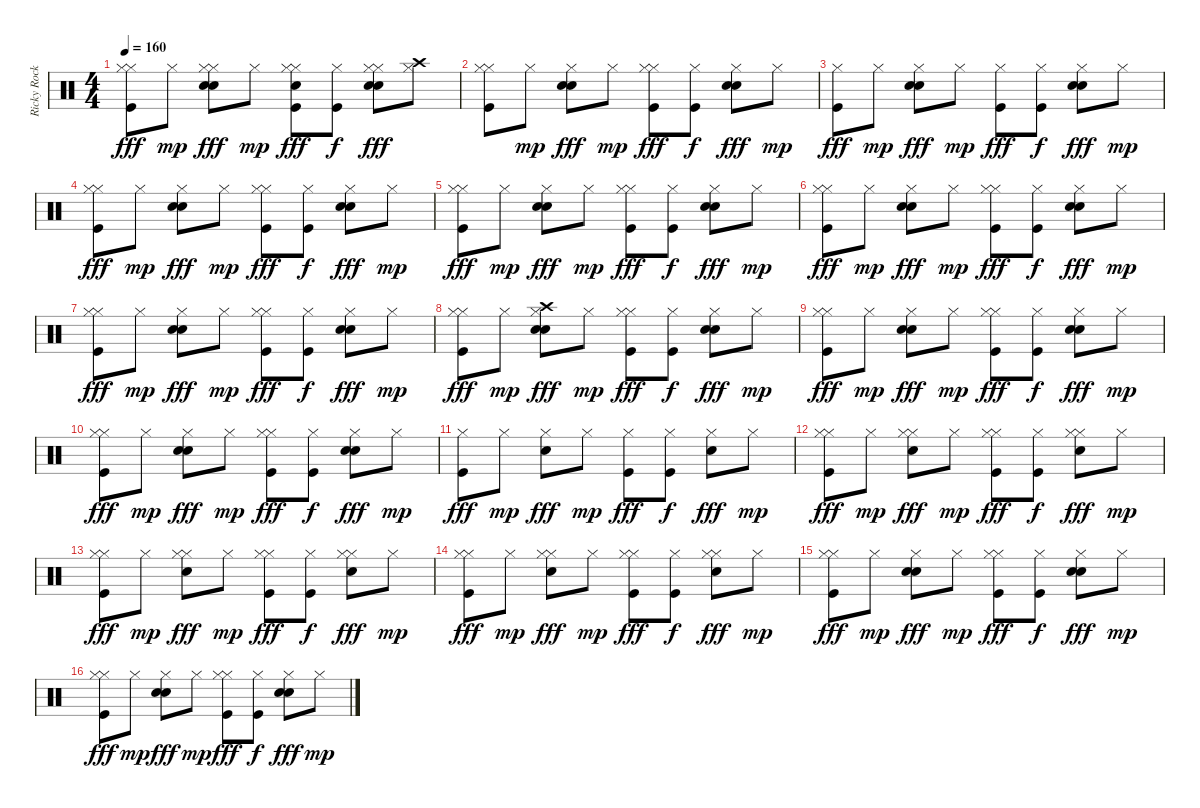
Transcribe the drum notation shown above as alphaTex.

\track ("Ricky Rockett" "Ricky Rock") {instrument percussion}
\staff {score}
\articulation defaults
\ts (4 4)
\tempo 160
\clef neutral
\ks c
("Hi-Hat (closed)" "Kick (hit)" "Hi-Hat (closed)").8{dy fff} "Hi-Hat (closed)".8{dy mp} ("Snare (hit) 2" "Hi-Hat (closed)" "Hi-Hat (closed)" "Electric Snare (hit)").8{dy fff} "Hi-Hat (closed)".8{dy mp} ("Hi-Hat (closed)" "Kick (hit)" "Hi-Hat (closed)" "Electric Snare (hit)").8{dy fff} ("Hi-Hat (closed)" "Kick (hit)").8{dy f} ("Snare (hit) 2" "Hi-Hat (closed)" "Hi-Hat (closed)" "Electric Snare (hit)").8{dy fff} ("Hi-Hat (closed)" "Crash high (hit)").8 |
("Hi-Hat (closed)" "Kick (hit)" "Hi-Hat (closed)").8 "Hi-Hat (closed)".8{dy mp} ("Snare (hit) 2" "Hi-Hat (closed)" "Electric Snare (hit)").8{dy fff} "Hi-Hat (closed)".8{dy mp} ("Hi-Hat (closed)" "Kick (hit)" "Hi-Hat (closed)").8{dy fff} ("Hi-Hat (closed)" "Kick (hit)").8{dy f} ("Snare (hit) 2" "Hi-Hat (closed)" "Electric Snare (hit)").8{dy fff} "Hi-Hat (closed)".8{dy mp} |
("Hi-Hat (closed)" "Kick (hit)").8{dy fff} "Hi-Hat (closed)".8{dy mp} ("Snare (hit) 2" "Hi-Hat (closed)" "Electric Snare (hit)").8{dy fff} "Hi-Hat (closed)".8{dy mp} ("Hi-Hat (closed)" "Kick (hit)").8{dy fff} ("Hi-Hat (closed)" "Kick (hit)").8{dy f} ("Snare (hit) 2" "Hi-Hat (closed)" "Electric Snare (hit)").8{dy fff} "Hi-Hat (closed)".8{dy mp} |
("Hi-Hat (closed)" "Kick (hit)" "Hi-Hat (closed)").8{dy fff} "Hi-Hat (closed)".8{dy mp} ("Snare (hit) 2" "Hi-Hat (closed)" "Electric Snare (hit)").8{dy fff} "Hi-Hat (closed)".8{dy mp} ("Hi-Hat (closed)" "Kick (hit)" "Hi-Hat (closed)").8{dy fff} ("Hi-Hat (closed)" "Kick (hit)").8{dy f} ("Snare (hit) 2" "Hi-Hat (closed)" "Electric Snare (hit)").8{dy fff} "Hi-Hat (closed)".8{dy mp} |
("Hi-Hat (closed)" "Kick (hit)" "Hi-Hat (closed)").8{dy fff} "Hi-Hat (closed)".8{dy mp} ("Snare (hit) 2" "Hi-Hat (closed)" "Electric Snare (hit)").8{dy fff} "Hi-Hat (closed)".8{dy mp} ("Hi-Hat (closed)" "Kick (hit)" "Hi-Hat (closed)").8{dy fff} ("Hi-Hat (closed)" "Kick (hit)").8{dy f} ("Snare (hit) 2" "Hi-Hat (closed)" "Electric Snare (hit)").8{dy fff} "Hi-Hat (closed)".8{dy mp} |
("Hi-Hat (closed)" "Kick (hit)" "Hi-Hat (closed)").8{dy fff} "Hi-Hat (closed)".8{dy mp} ("Snare (hit) 2" "Hi-Hat (closed)" "Electric Snare (hit)").8{dy fff} "Hi-Hat (closed)".8{dy mp} ("Hi-Hat (closed)" "Kick (hit)" "Hi-Hat (closed)").8{dy fff} ("Hi-Hat (closed)" "Kick (hit)").8{dy f} ("Snare (hit) 2" "Hi-Hat (closed)" "Electric Snare (hit)").8{dy fff} "Hi-Hat (closed)".8{dy mp} |
("Hi-Hat (closed)" "Kick (hit)" "Hi-Hat (closed)").8{dy fff} "Hi-Hat (closed)".8{dy mp} ("Snare (hit) 2" "Hi-Hat (closed)" "Electric Snare (hit)").8{dy fff} "Hi-Hat (closed)".8{dy mp} ("Hi-Hat (closed)" "Kick (hit)" "Hi-Hat (closed)").8{dy fff} ("Hi-Hat (closed)" "Kick (hit)").8{dy f} ("Snare (hit) 2" "Hi-Hat (closed)" "Electric Snare (hit)").8{dy fff} "Hi-Hat (closed)".8{dy mp} |
("Hi-Hat (closed)" "Kick (hit)" "Hi-Hat (closed)").8{dy fff} "Hi-Hat (closed)".8{dy mp} ("Snare (hit) 2" "Hi-Hat (closed)" "Electric Snare (hit)" "Crash high (hit)").8{dy fff} "Hi-Hat (closed)".8{dy mp} ("Hi-Hat (closed)" "Kick (hit)" "Hi-Hat (closed)").8{dy fff} ("Hi-Hat (closed)" "Kick (hit)").8{dy f} ("Snare (hit) 2" "Hi-Hat (closed)" "Electric Snare (hit)").8{dy fff} "Hi-Hat (closed)".8{dy mp} |
("Hi-Hat (closed)" "Kick (hit)" "Hi-Hat (closed)").8{dy fff} "Hi-Hat (closed)".8{dy mp} ("Snare (hit) 2" "Hi-Hat (closed)" "Electric Snare (hit)").8{dy fff} "Hi-Hat (closed)".8{dy mp} ("Hi-Hat (closed)" "Kick (hit)" "Hi-Hat (closed)").8{dy fff} ("Hi-Hat (closed)" "Kick (hit)").8{dy f} ("Snare (hit) 2" "Hi-Hat (closed)" "Electric Snare (hit)").8{dy fff} "Hi-Hat (closed)".8{dy mp} |
("Hi-Hat (closed)" "Kick (hit)" "Hi-Hat (closed)").8{dy fff} "Hi-Hat (closed)".8{dy mp} ("Snare (hit) 2" "Hi-Hat (closed)" "Electric Snare (hit)").8{dy fff} "Hi-Hat (closed)".8{dy mp} ("Hi-Hat (closed)" "Kick (hit)" "Hi-Hat (closed)").8{dy fff} ("Hi-Hat (closed)" "Kick (hit)").8{dy f} ("Snare (hit) 2" "Hi-Hat (closed)" "Electric Snare (hit)").8{dy fff} "Hi-Hat (closed)".8{dy mp} |
("Hi-Hat (closed)" "Kick (hit)").8{dy fff} "Hi-Hat (closed)".8{dy mp} ("Snare (hit) 2" "Hi-Hat (closed)").8{dy fff} "Hi-Hat (closed)".8{dy mp} ("Hi-Hat (closed)" "Kick (hit)").8{dy fff} ("Hi-Hat (closed)" "Kick (hit)").8{dy f} ("Snare (hit) 2" "Hi-Hat (closed)").8{dy fff} "Hi-Hat (closed)".8{dy mp} |
("Hi-Hat (closed)" "Kick (hit)" "Hi-Hat (closed)").8{dy fff} "Hi-Hat (closed)".8{dy mp} ("Snare (hit) 2" "Hi-Hat (closed)" "Hi-Hat (closed)").8{dy fff} "Hi-Hat (closed)".8{dy mp} ("Hi-Hat (closed)" "Kick (hit)" "Hi-Hat (closed)").8{dy fff} ("Hi-Hat (closed)" "Kick (hit)").8{dy f} ("Snare (hit) 2" "Hi-Hat (closed)" "Hi-Hat (closed)").8{dy fff} "Hi-Hat (closed)".8{dy mp} |
("Hi-Hat (closed)" "Kick (hit)" "Hi-Hat (closed)").8{dy fff} "Hi-Hat (closed)".8{dy mp} ("Snare (hit) 2" "Hi-Hat (closed)" "Hi-Hat (closed)").8{dy fff} "Hi-Hat (closed)".8{dy mp} ("Hi-Hat (closed)" "Kick (hit)" "Hi-Hat (closed)").8{dy fff} ("Hi-Hat (closed)" "Kick (hit)").8{dy f} ("Snare (hit) 2" "Hi-Hat (closed)" "Hi-Hat (closed)").8{dy fff} "Hi-Hat (closed)".8{dy mp} |
("Hi-Hat (closed)" "Kick (hit)" "Hi-Hat (closed)").8{dy fff} "Hi-Hat (closed)".8{dy mp} ("Snare (hit) 2" "Hi-Hat (closed)" "Hi-Hat (closed)").8{dy fff} "Hi-Hat (closed)".8{dy mp} ("Hi-Hat (closed)" "Kick (hit)" "Hi-Hat (closed)").8{dy fff} ("Hi-Hat (closed)" "Kick (hit)").8{dy f} ("Snare (hit) 2" "Hi-Hat (closed)" "Hi-Hat (closed)").8{dy fff} "Hi-Hat (closed)".8{dy mp} |
("Hi-Hat (closed)" "Kick (hit)" "Hi-Hat (closed)").8{dy fff} "Hi-Hat (closed)".8{dy mp} ("Snare (hit) 2" "Hi-Hat (closed)" "Electric Snare (hit)").8{dy fff} "Hi-Hat (closed)".8{dy mp} ("Hi-Hat (closed)" "Kick (hit)" "Hi-Hat (closed)").8{dy fff} ("Hi-Hat (closed)" "Kick (hit)").8{dy f} ("Snare (hit) 2" "Hi-Hat (closed)" "Electric Snare (hit)").8{dy fff} "Hi-Hat (closed)".8{dy mp} |
("Hi-Hat (closed)" "Kick (hit)" "Hi-Hat (closed)").8{dy fff} "Hi-Hat (closed)".8{dy mp} ("Snare (hit) 2" "Hi-Hat (closed)" "Electric Snare (hit)").8{dy fff} "Hi-Hat (closed)".8{dy mp} ("Hi-Hat (closed)" "Kick (hit)" "Hi-Hat (closed)").8{dy fff} ("Hi-Hat (closed)" "Kick (hit)").8{dy f} ("Snare (hit) 2" "Hi-Hat (closed)" "Electric Snare (hit)").8{dy fff} "Hi-Hat (closed)".8{dy mp}
